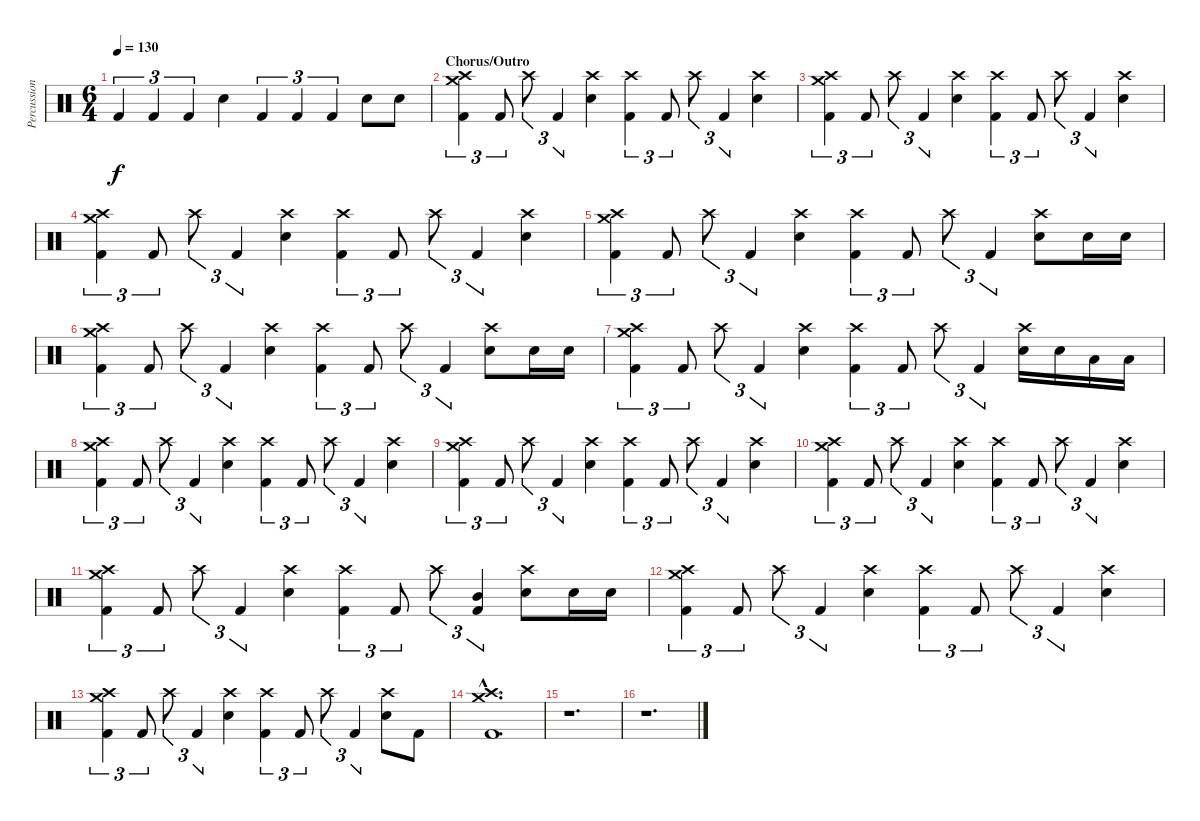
\track ("Percussion" "Percussion") {instrument percussion}
\staff {score}
\articulation defaults
\ts (6 4)
\tempo 130
\clef neutral
\ks c "Kick (hit) 2".4{tu (3 2) dy f} "Kick (hit) 2".4{tu (3 2)} "Kick (hit) 2".4{tu (3 2)} "Electric Snare (hit)".4 "Kick (hit) 2".4{tu (3 2)} "Kick (hit) 2".4{tu (3 2)} "Kick (hit) 2".4{tu (3 2)} "Electric Snare (hit)".8 "Electric Snare (hit)".8
|
\section ("" "Chorus/Outro")
("Crash medium (hit)" "Crash high (hit)" "Kick (hit) 2").4{tu (3 2)} "Kick (hit) 2".8{tu (3 2)} "Crash high (hit)".8{tu (3 2)} "Kick (hit) 2".4{tu (3 2)} ("Crash high (hit)" "Electric Snare (hit)").4 ("Crash high (hit)" "Kick (hit) 2").4{tu (3 2)} "Kick (hit) 2".8{tu (3 2)} "Crash high (hit)".8{tu (3 2)} "Kick (hit) 2".4{tu (3 2)} ("Crash high (hit)" "Electric Snare (hit)").4 |
("Crash medium (hit)" "Crash high (hit)" "Kick (hit) 2").4{tu (3 2)} "Kick (hit) 2".8{tu (3 2)} "Crash high (hit)".8{tu (3 2)} "Kick (hit) 2".4{tu (3 2)} ("Crash high (hit)" "Electric Snare (hit)").4 ("Crash high (hit)" "Kick (hit) 2").4{tu (3 2)} "Kick (hit) 2".8{tu (3 2)} "Crash high (hit)".8{tu (3 2)} "Kick (hit) 2".4{tu (3 2)} ("Crash high (hit)" "Electric Snare (hit)").4 |
("Crash medium (hit)" "Crash high (hit)" "Kick (hit) 2").4{tu (3 2)} "Kick (hit) 2".8{tu (3 2)} "Crash high (hit)".8{tu (3 2)} "Kick (hit) 2".4{tu (3 2)} ("Crash high (hit)" "Electric Snare (hit)").4 ("Crash high (hit)" "Kick (hit) 2").4{tu (3 2)} "Kick (hit) 2".8{tu (3 2)} "Crash high (hit)".8{tu (3 2)} "Kick (hit) 2".4{tu (3 2)} ("Crash high (hit)" "Electric Snare (hit)").4 |
("Crash medium (hit)" "Crash high (hit)" "Kick (hit) 2").4{tu (3 2)} "Kick (hit) 2".8{tu (3 2)} "Crash high (hit)".8{tu (3 2)} "Kick (hit) 2".4{tu (3 2)} ("Crash high (hit)" "Electric Snare (hit)").4 ("Crash high (hit)" "Kick (hit) 2").4{tu (3 2)} "Kick (hit) 2".8{tu (3 2)} "Crash high (hit)".8{tu (3 2)} "Kick (hit) 2".4{tu (3 2)} ("Crash high (hit)" "Electric Snare (hit)").8 "Electric Snare (hit)".16 "Electric Snare (hit)".16 |
("Crash medium (hit)" "Crash high (hit)" "Kick (hit) 2").4{tu (3 2)} "Kick (hit) 2".8{tu (3 2)} "Crash high (hit)".8{tu (3 2)} "Kick (hit) 2".4{tu (3 2)} ("Crash high (hit)" "Electric Snare (hit)").4 ("Crash high (hit)" "Kick (hit) 2").4{tu (3 2)} "Kick (hit) 2".8{tu (3 2)} "Crash high (hit)".8{tu (3 2)} "Kick (hit) 2".4{tu (3 2)} ("Crash high (hit)" "Electric Snare (hit)").8 "Electric Snare (hit)".16 "Electric Snare (hit)".16 |
("Crash medium (hit)" "Crash high (hit)" "Kick (hit) 2").4{tu (3 2)} "Kick (hit) 2".8{tu (3 2)} "Crash high (hit)".8{tu (3 2)} "Kick (hit) 2".4{tu (3 2)} ("Crash high (hit)" "Electric Snare (hit)").4 ("Crash high (hit)" "Kick (hit) 2").4{tu (3 2)} "Kick (hit) 2".8{tu (3 2)} "Crash high (hit)".8{tu (3 2)} "Kick (hit) 2".4{tu (3 2)} ("Crash high (hit)" "Electric Snare (hit)").16 "Electric Snare (hit)".16 "Low Tom (hit)".16 "Low Tom (hit)".16 |
("Crash medium (hit)" "Crash high (hit)" "Kick (hit) 2").4{tu (3 2)} "Kick (hit) 2".8{tu (3 2)} "Crash high (hit)".8{tu (3 2)} "Kick (hit) 2".4{tu (3 2)} ("Crash high (hit)" "Electric Snare (hit)").4 ("Crash high (hit)" "Kick (hit) 2").4{tu (3 2)} "Kick (hit) 2".8{tu (3 2)} "Crash high (hit)".8{tu (3 2)} "Kick (hit) 2".4{tu (3 2)} ("Crash high (hit)" "Electric Snare (hit)").4 |
("Crash medium (hit)" "Crash high (hit)" "Kick (hit) 2").4{tu (3 2)} "Kick (hit) 2".8{tu (3 2)} "Crash high (hit)".8{tu (3 2)} "Kick (hit) 2".4{tu (3 2)} ("Crash high (hit)" "Electric Snare (hit)").4 ("Crash high (hit)" "Kick (hit) 2").4{tu (3 2)} "Kick (hit) 2".8{tu (3 2)} "Crash high (hit)".8{tu (3 2)} "Kick (hit) 2".4{tu (3 2)} ("Crash high (hit)" "Electric Snare (hit)").4 |
("Crash medium (hit)" "Crash high (hit)" "Kick (hit) 2").4{tu (3 2)} "Kick (hit) 2".8{tu (3 2)} "Crash high (hit)".8{tu (3 2)} "Kick (hit) 2".4{tu (3 2)} ("Crash high (hit)" "Electric Snare (hit)").4 ("Crash high (hit)" "Kick (hit) 2").4{tu (3 2)} "Kick (hit) 2".8{tu (3 2)} "Crash high (hit)".8{tu (3 2)} "Kick (hit) 2".4{tu (3 2)} ("Crash high (hit)" "Electric Snare (hit)").4 |
("Crash medium (hit)" "Crash high (hit)" "Kick (hit) 2").4{tu (3 2)} "Kick (hit) 2".8{tu (3 2)} "Crash high (hit)".8{tu (3 2)} "Kick (hit) 2".4{tu (3 2)} ("Crash high (hit)" "Electric Snare (hit)").4 ("Crash high (hit)" "Kick (hit) 2").4{tu (3 2)} "Kick (hit) 2".8{tu (3 2)} "Crash high (hit)".8{tu (3 2)} ("Mid Tom (hit)" "Kick (hit) 2").4{tu (3 2)} ("Crash high (hit)" "Electric Snare (hit)").8 "Electric Snare (hit)".16 "Electric Snare (hit)".16 |
("Crash medium (hit)" "Crash high (hit)" "Kick (hit) 2").4{tu (3 2)} "Kick (hit) 2".8{tu (3 2)} "Crash high (hit)".8{tu (3 2)} "Kick (hit) 2".4{tu (3 2)} ("Crash high (hit)" "Electric Snare (hit)").4 ("Crash high (hit)" "Kick (hit) 2").4{tu (3 2)} "Kick (hit) 2".8{tu (3 2)} "Crash high (hit)".8{tu (3 2)} "Kick (hit) 2".4{tu (3 2)} ("Crash high (hit)" "Electric Snare (hit)").4 |
("Crash medium (hit)" "Crash high (hit)" "Kick (hit) 2").4{tu (3 2)} "Kick (hit) 2".8{tu (3 2)} "Crash high (hit)".8{tu (3 2)} "Kick (hit) 2".4{tu (3 2)} ("Crash high (hit)" "Electric Snare (hit)").4 ("Crash high (hit)" "Kick (hit) 2").4{tu (3 2)} "Kick (hit) 2".8{tu (3 2)} "Crash high (hit)".8{tu (3 2)} "Kick (hit) 2".4{tu (3 2)} ("Crash high (hit)" "Electric Snare (hit)").8 "Kick (hit) 2".8 |
("Crash medium (hit)"{hac} "Crash high (hit)"{hac} "Kick (hit) 2"{hac}).1{d} |
r.1{d} |
r.1{d}
